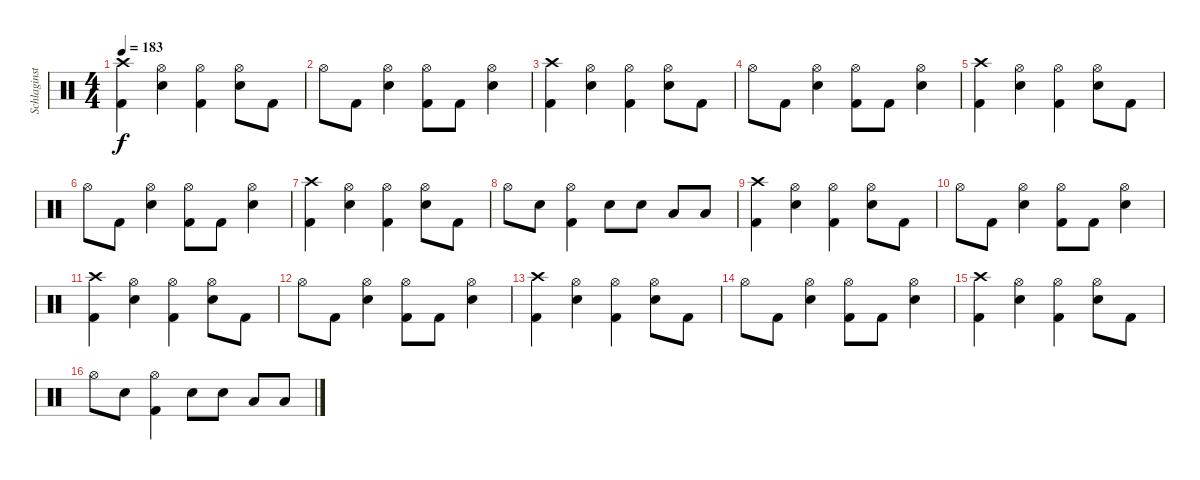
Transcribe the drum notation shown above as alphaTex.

\track ("Schlaginstrumente - Auswahl" "Schlaginst") {instrument percussion}
\staff {score}
\articulation defaults
\ts (4 4)
\tempo 183
\clef neutral
\ks c
("Crash high (hit)" "Kick (hit) 2").4{dy f} ("Hi-Hat (open)" "Snare (hit) 2").4 ("Hi-Hat (open)" "Kick (hit) 2").4 ("Hi-Hat (open)" "Snare (hit) 2").8 "Kick (hit) 2".8 |
"Hi-Hat (open)".8 "Kick (hit) 2".8 ("Hi-Hat (open)" "Snare (hit) 2").4 ("Hi-Hat (open)" "Kick (hit) 2").8 "Kick (hit) 2".8 ("Hi-Hat (open)" "Snare (hit) 2").4 |
("Crash high (hit)" "Kick (hit) 2").4 ("Hi-Hat (open)" "Snare (hit) 2").4 ("Hi-Hat (open)" "Kick (hit) 2").4 ("Hi-Hat (open)" "Snare (hit) 2").8 "Kick (hit) 2".8 |
"Hi-Hat (open)".8 "Kick (hit) 2".8 ("Hi-Hat (open)" "Snare (hit) 2").4 ("Hi-Hat (open)" "Kick (hit) 2").8 "Kick (hit) 2".8 ("Hi-Hat (open)" "Snare (hit) 2").4 |
("Crash high (hit)" "Kick (hit) 2").4 ("Hi-Hat (open)" "Snare (hit) 2").4 ("Hi-Hat (open)" "Kick (hit) 2").4 ("Hi-Hat (open)" "Snare (hit) 2").8 "Kick (hit) 2".8 |
"Hi-Hat (open)".8 "Kick (hit) 2".8 ("Hi-Hat (open)" "Snare (hit) 2").4 ("Hi-Hat (open)" "Kick (hit) 2").8 "Kick (hit) 2".8 ("Hi-Hat (open)" "Snare (hit) 2").4 |
("Crash high (hit)" "Kick (hit) 2").4 ("Hi-Hat (open)" "Snare (hit) 2").4 ("Hi-Hat (open)" "Kick (hit) 2").4 ("Hi-Hat (open)" "Snare (hit) 2").8 "Kick (hit) 2".8 |
"Hi-Hat (open)".8 "Snare (hit) 2".8 ("Hi-Hat (open)" "Kick (hit) 2").4 "Snare (hit) 2".8 "Snare (hit) 2".8 "Low Tom (hit)".8 "Low Tom (hit)".8 |
("Crash high (hit)" "Kick (hit) 2").4 ("Hi-Hat (open)" "Snare (hit) 2").4 ("Hi-Hat (open)" "Kick (hit) 2").4 ("Hi-Hat (open)" "Snare (hit) 2").8 "Kick (hit) 2".8 |
"Hi-Hat (open)".8 "Kick (hit) 2".8 ("Hi-Hat (open)" "Snare (hit) 2").4 ("Hi-Hat (open)" "Kick (hit) 2").8 "Kick (hit) 2".8 ("Hi-Hat (open)" "Snare (hit) 2").4 |
("Crash high (hit)" "Kick (hit) 2").4 ("Hi-Hat (open)" "Snare (hit) 2").4 ("Hi-Hat (open)" "Kick (hit) 2").4 ("Hi-Hat (open)" "Snare (hit) 2").8 "Kick (hit) 2".8 |
"Hi-Hat (open)".8 "Kick (hit) 2".8 ("Hi-Hat (open)" "Snare (hit) 2").4 ("Hi-Hat (open)" "Kick (hit) 2").8 "Kick (hit) 2".8 ("Hi-Hat (open)" "Snare (hit) 2").4 |
("Crash high (hit)" "Kick (hit) 2").4 ("Hi-Hat (open)" "Snare (hit) 2").4 ("Hi-Hat (open)" "Kick (hit) 2").4 ("Hi-Hat (open)" "Snare (hit) 2").8 "Kick (hit) 2".8 |
"Hi-Hat (open)".8 "Kick (hit) 2".8 ("Hi-Hat (open)" "Snare (hit) 2").4 ("Hi-Hat (open)" "Kick (hit) 2").8 "Kick (hit) 2".8 ("Hi-Hat (open)" "Snare (hit) 2").4 |
("Crash high (hit)" "Kick (hit) 2").4 ("Hi-Hat (open)" "Snare (hit) 2").4 ("Hi-Hat (open)" "Kick (hit) 2").4 ("Hi-Hat (open)" "Snare (hit) 2").8 "Kick (hit) 2".8 |
"Hi-Hat (open)".8 "Snare (hit) 2".8 ("Hi-Hat (open)" "Kick (hit) 2").4 "Snare (hit) 2".8 "Snare (hit) 2".8 "Low Tom (hit)".8 "Low Tom (hit)".8
